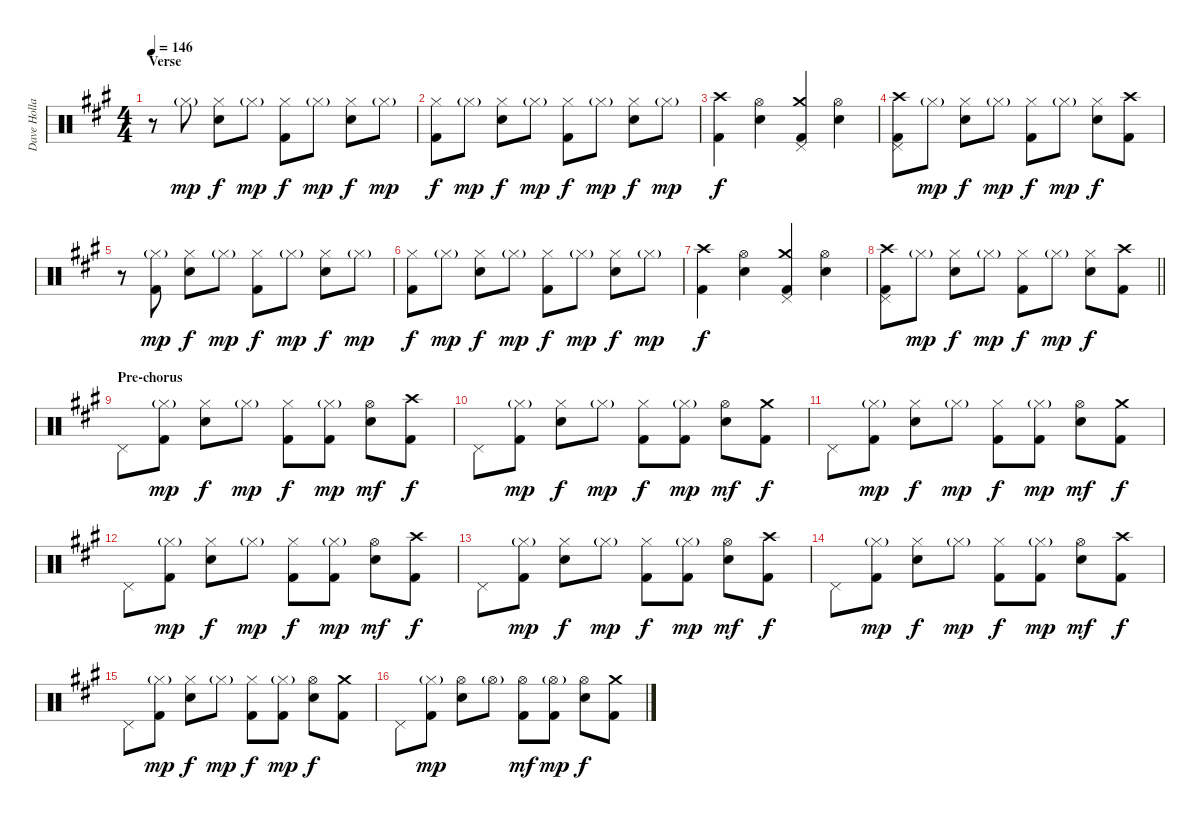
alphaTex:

\track ("Dave Holland" "Dave Holla") {instrument percussion}
\staff {score}
\articulation defaults
\ts (4 4)
\section ("" "Verse")
\tempo 146
\clef neutral
\ks a
r.8{dy f} "Hi-Hat (closed)"{g}.8{dy mp} ("Hi-Hat (closed)" "Electric Snare (hit)").8{dy f} "Hi-Hat (closed)"{g}.8{dy mp} ("Hi-Hat (closed)" "Kick (hit) 2").8{dy f} "Hi-Hat (closed)"{g}.8{dy mp} ("Hi-Hat (closed)" "Electric Snare (hit)").8{dy f} "Hi-Hat (closed)"{g}.8{dy mp} |
("Hi-Hat (closed)" "Kick (hit) 2").8{dy f} "Hi-Hat (closed)"{g}.8{dy mp} ("Hi-Hat (closed)" "Electric Snare (hit)").8{dy f} "Hi-Hat (closed)"{g}.8{dy mp} ("Hi-Hat (closed)" "Kick (hit) 2").8{dy f} "Hi-Hat (closed)"{g}.8{dy mp} ("Hi-Hat (closed)" "Electric Snare (hit)").8{dy f} "Hi-Hat (closed)"{g}.8{dy mp} |
("Crash high (hit)" "Kick (hit) 2").4{dy f} ("Hi-Hat (open)" "Electric Snare (hit)").4 ("Crash medium (hit)" "Pedal Hi-Hat (hit)" "Kick (hit) 2").4 ("Hi-Hat (open)" "Electric Snare (hit)").4 |
("Crash high (hit)" "Pedal Hi-Hat (hit)" "Kick (hit) 2").8 "Hi-Hat (closed)"{g}.8{dy mp} ("Hi-Hat (closed)" "Electric Snare (hit)").8{dy f} "Hi-Hat (closed)"{g}.8{dy mp} ("Hi-Hat (closed)" "Kick (hit) 2").8{dy f} "Hi-Hat (closed)"{g}.8{dy mp} ("Hi-Hat (closed)" "Electric Snare (hit)").8{dy f} ("Crash high (hit)" "Kick (hit) 2").8 |
r.8 ("Hi-Hat (closed)"{g} "Kick (hit) 2").8{dy mp} ("Hi-Hat (closed)" "Electric Snare (hit)").8{dy f} "Hi-Hat (closed)"{g}.8{dy mp} ("Hi-Hat (closed)" "Kick (hit) 2").8{dy f} "Hi-Hat (closed)"{g}.8{dy mp} ("Hi-Hat (closed)" "Electric Snare (hit)").8{dy f} "Hi-Hat (closed)"{g}.8{dy mp} |
("Hi-Hat (closed)" "Kick (hit) 2").8{dy f} "Hi-Hat (closed)"{g}.8{dy mp} ("Hi-Hat (closed)" "Electric Snare (hit)").8{dy f} "Hi-Hat (closed)"{g}.8{dy mp} ("Hi-Hat (closed)" "Kick (hit) 2").8{dy f} "Hi-Hat (closed)"{g}.8{dy mp} ("Hi-Hat (closed)" "Electric Snare (hit)").8{dy f} "Hi-Hat (closed)"{g}.8{dy mp} |
("Crash high (hit)" "Kick (hit) 2").4{dy f} ("Hi-Hat (open)" "Electric Snare (hit)").4 ("Crash medium (hit)" "Pedal Hi-Hat (hit)" "Kick (hit) 2").4 ("Hi-Hat (open)" "Electric Snare (hit)").4 |
\barLineRight lightlight
("Crash high (hit)" "Pedal Hi-Hat (hit)" "Kick (hit) 2").8 "Hi-Hat (closed)"{g}.8{dy mp} ("Hi-Hat (closed)" "Electric Snare (hit)").8{dy f} "Hi-Hat (closed)"{g}.8{dy mp} ("Hi-Hat (closed)" "Kick (hit) 2").8{dy f} "Hi-Hat (closed)"{g}.8{dy mp} ("Hi-Hat (closed)" "Electric Snare (hit)").8{dy f} ("Crash high (hit)" "Kick (hit) 2").8 |
\section ("" "Pre-chorus")
"Pedal Hi-Hat (hit)".8 ("Hi-Hat (closed)"{g} "Kick (hit) 2").8{dy mp} ("Hi-Hat (closed)" "Electric Snare (hit)").8{dy f} "Hi-Hat (closed)"{g}.8{dy mp} ("Hi-Hat (closed)" "Kick (hit) 2").8{dy f} ("Hi-Hat (closed)"{g} "Kick (hit) 2").8{dy mp} ("Hi-Hat (open)" "Electric Snare (hit)").8{dy mf} ("Crash high (hit)" "Kick (hit) 2").8{dy f} |
"Pedal Hi-Hat (hit)".8 ("Hi-Hat (closed)"{g} "Kick (hit) 2").8{dy mp} ("Hi-Hat (closed)" "Electric Snare (hit)").8{dy f} "Hi-Hat (closed)"{g}.8{dy mp} ("Hi-Hat (closed)" "Kick (hit) 2").8{dy f} ("Hi-Hat (closed)"{g} "Kick (hit) 2").8{dy mp} ("Hi-Hat (open)" "Electric Snare (hit)").8{dy mf} ("Crash medium (hit)" "Kick (hit) 2").8{dy f} |
"Pedal Hi-Hat (hit)".8 ("Hi-Hat (closed)"{g} "Kick (hit) 2").8{dy mp} ("Hi-Hat (closed)" "Electric Snare (hit)").8{dy f} "Hi-Hat (closed)"{g}.8{dy mp} ("Hi-Hat (closed)" "Kick (hit) 2").8{dy f} ("Hi-Hat (closed)"{g} "Kick (hit) 2").8{dy mp} ("Hi-Hat (open)" "Electric Snare (hit)").8{dy mf} ("Crash medium (hit)" "Kick (hit) 2").8{dy f} |
"Pedal Hi-Hat (hit)".8 ("Hi-Hat (closed)"{g} "Kick (hit) 2").8{dy mp} ("Hi-Hat (closed)" "Electric Snare (hit)").8{dy f} "Hi-Hat (closed)"{g}.8{dy mp} ("Hi-Hat (closed)" "Kick (hit) 2").8{dy f} ("Hi-Hat (closed)"{g} "Kick (hit) 2").8{dy mp} ("Hi-Hat (open)" "Electric Snare (hit)").8{dy mf} ("Crash high (hit)" "Kick (hit) 2").8{dy f} |
"Pedal Hi-Hat (hit)".8 ("Hi-Hat (closed)"{g} "Kick (hit) 2").8{dy mp} ("Hi-Hat (closed)" "Electric Snare (hit)").8{dy f} "Hi-Hat (closed)"{g}.8{dy mp} ("Hi-Hat (closed)" "Kick (hit) 2").8{dy f} ("Hi-Hat (closed)"{g} "Kick (hit) 2").8{dy mp} ("Hi-Hat (open)" "Electric Snare (hit)").8{dy mf} ("Crash high (hit)" "Kick (hit) 2").8{dy f} |
"Pedal Hi-Hat (hit)".8 ("Hi-Hat (closed)"{g} "Kick (hit) 2").8{dy mp} ("Hi-Hat (closed)" "Electric Snare (hit)").8{dy f} "Hi-Hat (closed)"{g}.8{dy mp} ("Hi-Hat (closed)" "Kick (hit) 2").8{dy f} ("Hi-Hat (closed)"{g} "Kick (hit) 2").8{dy mp} ("Hi-Hat (open)" "Electric Snare (hit)").8{dy mf} ("Crash high (hit)" "Kick (hit) 2").8{dy f} |
"Pedal Hi-Hat (hit)".8 ("Hi-Hat (closed)"{g} "Kick (hit) 2").8{dy mp} ("Hi-Hat (closed)" "Electric Snare (hit)").8{dy f} "Hi-Hat (closed)"{g}.8{dy mp} ("Hi-Hat (closed)" "Kick (hit) 2").8{dy f} ("Hi-Hat (closed)"{g} "Kick (hit) 2").8{dy mp} ("Hi-Hat (open)" "Electric Snare (hit)").8{dy f} ("Crash medium (hit)" "Kick (hit) 2").8 |
"Pedal Hi-Hat (hit)".8 ("Hi-Hat (closed)"{g} "Kick (hit) 2").8{dy mp} ("Hi-Hat (open)" "Electric Snare (hit)").8 "Hi-Hat (open)"{g}.8 ("Hi-Hat (open)" "Kick (hit) 2").8{dy mf} ("Hi-Hat (open)"{g} "Kick (hit) 2").8{dy mp} ("Hi-Hat (open)" "Electric Snare (hit)").8{dy f} ("Crash medium (hit)" "Kick (hit) 2").8
